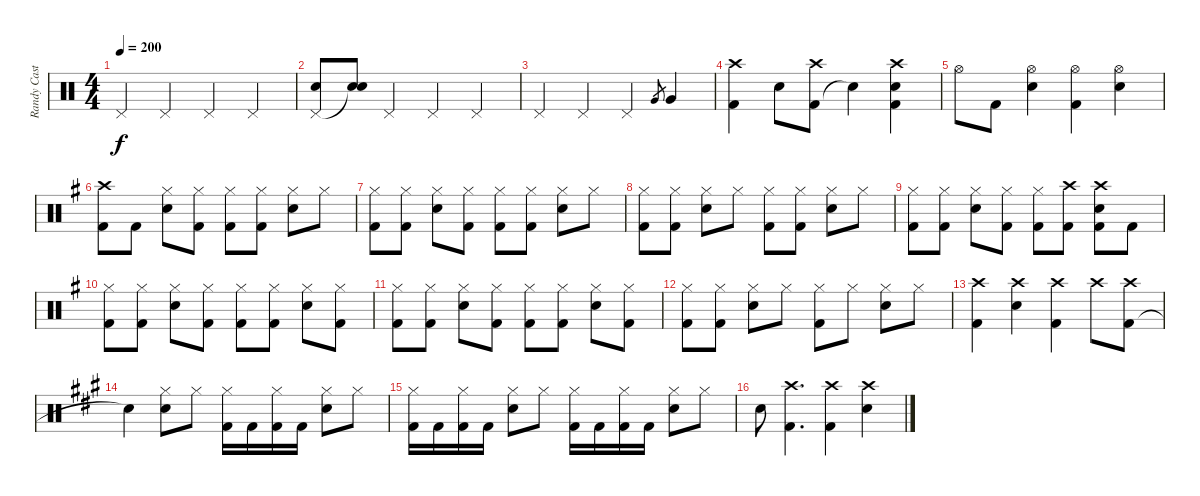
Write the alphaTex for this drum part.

\track ("Randy Castillo" "Randy Cast") {instrument percussion}
\staff {score}
\articulation defaults
\ts (4 4)
\tempo 200
\clef neutral
\ks c "Pedal Hi-Hat (hit)".4{dy f} "Pedal Hi-Hat (hit)".4 "Pedal Hi-Hat (hit)".4 "Pedal Hi-Hat (hit)".4
|
("Pedal Hi-Hat (hit)" "Snare (hit) 2").8 ("Snare (hit)"{t} "Snare (hit) 2").8 "Pedal Hi-Hat (hit)".4 "Pedal Hi-Hat (hit)".4 "Pedal Hi-Hat (hit)".4 |
"Pedal Hi-Hat (hit)".4 "Pedal Hi-Hat (hit)".4 "Pedal Hi-Hat (hit)".4 "Very Low Tom (hit)".8{gr} "Very Low Tom (hit)".4 |
("Kick (hit) 2" "Crash high (hit)").4 "Snare (hit) 2".8 ("Kick (hit) 2" "Crash high (hit)").8 "Snare (hit)"{t}.4 ("Snare (hit) 2" "Kick (hit) 2" "Crash high (hit)").4 |
"Hi-Hat (open)".8 "Kick (hit) 2".8 ("Hi-Hat (open)" "Snare (hit) 2").4 ("Hi-Hat (open)" "Kick (hit) 2").4 ("Hi-Hat (open)" "Snare (hit) 2").4 |
\ks g
("Kick (hit) 2" "Crash high (hit)").8 "Kick (hit) 2".8 ("Hi-Hat (closed)" "Snare (hit) 2").8 ("Hi-Hat (closed)" "Kick (hit) 2").8 ("Hi-Hat (closed)" "Kick (hit) 2").8 ("Hi-Hat (closed)" "Kick (hit) 2").8 ("Hi-Hat (closed)" "Snare (hit) 2").8 "Hi-Hat (closed)".8 |
("Hi-Hat (closed)" "Kick (hit) 2").8 ("Hi-Hat (closed)" "Kick (hit) 2").8 ("Hi-Hat (closed)" "Snare (hit) 2").8 ("Hi-Hat (closed)" "Kick (hit) 2").8 ("Hi-Hat (closed)" "Kick (hit) 2").8 ("Hi-Hat (closed)" "Kick (hit) 2").8 ("Hi-Hat (closed)" "Snare (hit) 2").8 "Hi-Hat (closed)".8 |
("Hi-Hat (closed)" "Kick (hit) 2").8 ("Hi-Hat (closed)" "Kick (hit) 2").8 ("Hi-Hat (closed)" "Snare (hit) 2").8 "Hi-Hat (closed)".8 ("Hi-Hat (closed)" "Kick (hit) 2").8 ("Hi-Hat (closed)" "Kick (hit) 2").8 ("Hi-Hat (closed)" "Snare (hit) 2").8 "Hi-Hat (closed)".8 |
("Hi-Hat (closed)" "Kick (hit) 2").8 ("Hi-Hat (closed)" "Kick (hit) 2").8 ("Hi-Hat (closed)" "Snare (hit) 2").8 ("Hi-Hat (closed)" "Kick (hit) 2").8 ("Hi-Hat (closed)" "Kick (hit) 2").8 ("Kick (hit) 2" "Crash high (hit)").8 ("Snare (hit) 2" "Kick (hit) 2" "Crash high (hit)").8 "Kick (hit) 2".8 |
("Hi-Hat (closed)" "Kick (hit) 2").8 ("Hi-Hat (closed)" "Kick (hit) 2").8 ("Hi-Hat (closed)" "Snare (hit) 2").8 ("Hi-Hat (closed)" "Kick (hit) 2").8 ("Hi-Hat (closed)" "Kick (hit) 2").8 ("Hi-Hat (closed)" "Kick (hit) 2").8 ("Hi-Hat (closed)" "Snare (hit) 2").8 ("Hi-Hat (closed)" "Kick (hit) 2").8 |
("Hi-Hat (closed)" "Kick (hit) 2").8 ("Hi-Hat (closed)" "Kick (hit) 2").8 ("Hi-Hat (closed)" "Snare (hit) 2").8 ("Hi-Hat (closed)" "Kick (hit) 2").8 ("Hi-Hat (closed)" "Kick (hit) 2").8 ("Hi-Hat (closed)" "Kick (hit) 2").8 ("Hi-Hat (closed)" "Snare (hit) 2").8 ("Hi-Hat (closed)" "Kick (hit) 2").8 |
("Hi-Hat (closed)" "Kick (hit) 2").8 ("Hi-Hat (closed)" "Kick (hit) 2").8 ("Hi-Hat (closed)" "Snare (hit) 2").8 "Hi-Hat (closed)".8 ("Hi-Hat (closed)" "Kick (hit) 2").8 "Hi-Hat (closed)".8 ("Hi-Hat (closed)" "Snare (hit) 2").8 "Hi-Hat (closed)".8 |
("Kick (hit) 2" "Crash high (hit)").4 ("Snare (hit) 2" "Crash high (hit)").4 ("Kick (hit) 2" "Crash high (hit)").4 "Crash high (hit)".8 ("Kick (hit) 2" "Crash high (hit)").8 |
\ks a "Snare (hit)"{t}.4
("Hi-Hat (closed)" "Snare (hit) 2").8 "Hi-Hat (closed)".8 ("Hi-Hat (closed)" "Kick (hit) 2").16 "Kick (hit) 2".16 ("Hi-Hat (closed)" "Kick (hit) 2").16 "Kick (hit) 2".16 ("Hi-Hat (closed)" "Snare (hit) 2").8 "Hi-Hat (closed)".8 |
("Hi-Hat (closed)" "Kick (hit) 2").16 "Kick (hit) 2".16 ("Hi-Hat (closed)" "Kick (hit) 2").16 "Kick (hit) 2".16 ("Hi-Hat (closed)" "Snare (hit) 2").8 "Hi-Hat (closed)".8 ("Hi-Hat (closed)" "Kick (hit) 2").16 "Kick (hit) 2".16 ("Hi-Hat (closed)" "Kick (hit) 2").16 "Kick (hit) 2".16 ("Hi-Hat (closed)" "Snare (hit) 2").8 "Hi-Hat (closed)".8 |
"Snare (hit) 2".8 ("Kick (hit) 2" "Crash high (hit)").4{d} ("Kick (hit) 2" "Crash high (hit)").4 ("Snare (hit) 2" "Crash high (hit)").4
